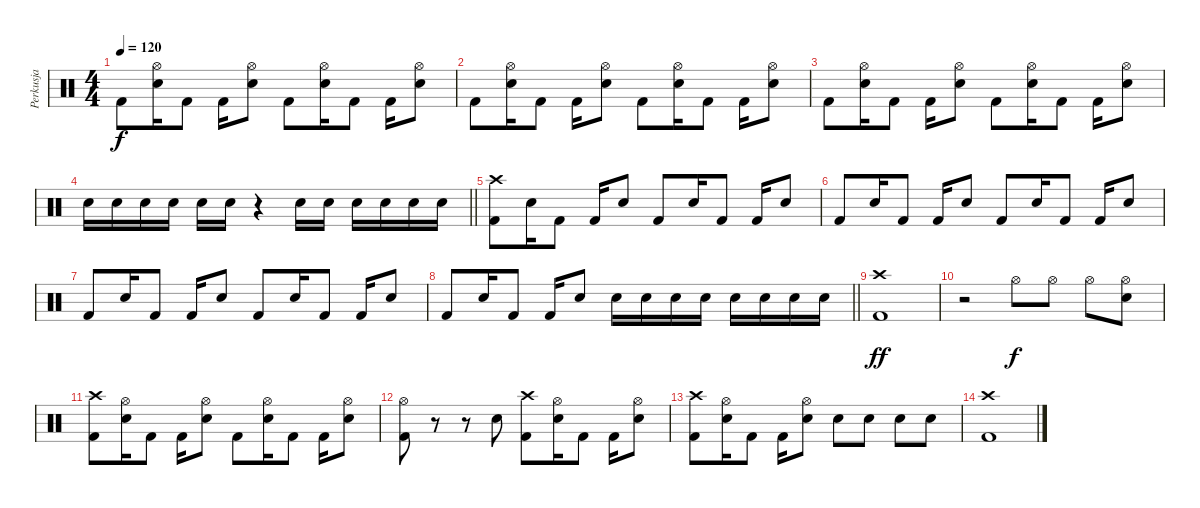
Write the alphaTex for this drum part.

\track ("Perkusja" "Perkusja") {instrument percussion}
\staff {score}
\articulation defaults
\ts (4 4)
\tempo 120
\clef neutral
\ks c "Kick (hit) 2".8{dy f}
("Hi-Hat (open)" "Electric Snare (hit)").16 "Kick (hit) 2".8 "Kick (hit) 2".16 ("Hi-Hat (open)" "Electric Snare (hit)").8 "Kick (hit) 2".8 ("Hi-Hat (open)" "Electric Snare (hit)").16 "Kick (hit) 2".8 "Kick (hit) 2".16 ("Hi-Hat (open)" "Electric Snare (hit)").8 |
"Kick (hit) 2".8 ("Hi-Hat (open)" "Electric Snare (hit)").16 "Kick (hit) 2".8 "Kick (hit) 2".16 ("Hi-Hat (open)" "Electric Snare (hit)").8 "Kick (hit) 2".8 ("Hi-Hat (open)" "Electric Snare (hit)").16 "Kick (hit) 2".8 "Kick (hit) 2".16 ("Hi-Hat (open)" "Electric Snare (hit)").8 |
"Kick (hit) 2".8 ("Hi-Hat (open)" "Electric Snare (hit)").16 "Kick (hit) 2".8 "Kick (hit) 2".16 ("Hi-Hat (open)" "Electric Snare (hit)").8 "Kick (hit) 2".8 ("Hi-Hat (open)" "Electric Snare (hit)").16 "Kick (hit) 2".8 "Kick (hit) 2".16 ("Hi-Hat (open)" "Electric Snare (hit)").8 |
\barLineRight lightlight "Electric Snare (hit)".16 "Electric Snare (hit)".16 "Electric Snare (hit)".16 "Electric Snare (hit)".16 "Electric Snare (hit)".16 "Electric Snare (hit)".16
r.4 "Electric Snare (hit)".16 "Electric Snare (hit)".16 "Electric Snare (hit)".16 "Electric Snare (hit)".16 "Electric Snare (hit)".16 "Electric Snare (hit)".16 |
("Crash high (hit)" "Kick (hit) 2").8 "Electric Snare (hit)".16 "Kick (hit) 2".8 "Kick (hit) 2".16 "Electric Snare (hit)".8 "Kick (hit) 2".8 "Electric Snare (hit)".16 "Kick (hit) 2".8 "Kick (hit) 2".16 "Electric Snare (hit)".8 |
"Kick (hit) 2".8 "Electric Snare (hit)".16 "Kick (hit) 2".8 "Kick (hit) 2".16 "Electric Snare (hit)".8 "Kick (hit) 2".8 "Electric Snare (hit)".16 "Kick (hit) 2".8 "Kick (hit) 2".16 "Electric Snare (hit)".8 |
"Kick (hit) 2".8 "Electric Snare (hit)".16 "Kick (hit) 2".8 "Kick (hit) 2".16 "Electric Snare (hit)".8 "Kick (hit) 2".8 "Electric Snare (hit)".16 "Kick (hit) 2".8 "Kick (hit) 2".16 "Electric Snare (hit)".8 |
\barLineRight lightlight "Kick (hit) 2".8 "Electric Snare (hit)".16 "Kick (hit) 2".8 "Kick (hit) 2".16 "Electric Snare (hit)".8 "Electric Snare (hit)".16 "Electric Snare (hit)".16 "Electric Snare (hit)".16 "Electric Snare (hit)".16 "Electric Snare (hit)".16 "Electric Snare (hit)".16 "Electric Snare (hit)".16 "Electric Snare (hit)".16
|
("Crash high (hit)" "Kick (hit) 2").1{dy ff} |
r.2 "Hi-Hat (open)".8{dy f} "Hi-Hat (open)".8 "Hi-Hat (open)".8 ("Electric Snare (hit)" "Hi-Hat (open)").8 |
("Crash high (hit)" "Kick (hit) 2").8 ("Hi-Hat (open)" "Electric Snare (hit)").16 "Kick (hit) 2".8 "Kick (hit) 2".16 ("Hi-Hat (open)" "Electric Snare (hit)").8 "Kick (hit) 2".8 ("Hi-Hat (open)" "Electric Snare (hit)").16 "Kick (hit) 2".8 "Kick (hit) 2".16 ("Hi-Hat (open)" "Electric Snare (hit)").8 |
("Kick (hit) 2" "Hi-Hat (open)").8 r.8 r.8 "Electric Snare (hit)".8 ("Crash high (hit)" "Kick (hit) 2").8 ("Hi-Hat (open)" "Electric Snare (hit)").16 "Kick (hit) 2".8 "Kick (hit) 2".16 ("Hi-Hat (open)" "Electric Snare (hit)").8 |
("Crash high (hit)" "Kick (hit) 2").8 ("Hi-Hat (open)" "Electric Snare (hit)").16 "Kick (hit) 2".8 "Kick (hit) 2".16 ("Hi-Hat (open)" "Electric Snare (hit)").8 "Electric Snare (hit)".8 "Electric Snare (hit)".8 "Electric Snare (hit)".8 "Electric Snare (hit)".8 |
("Kick (hit) 2" "Crash high (hit)").1
